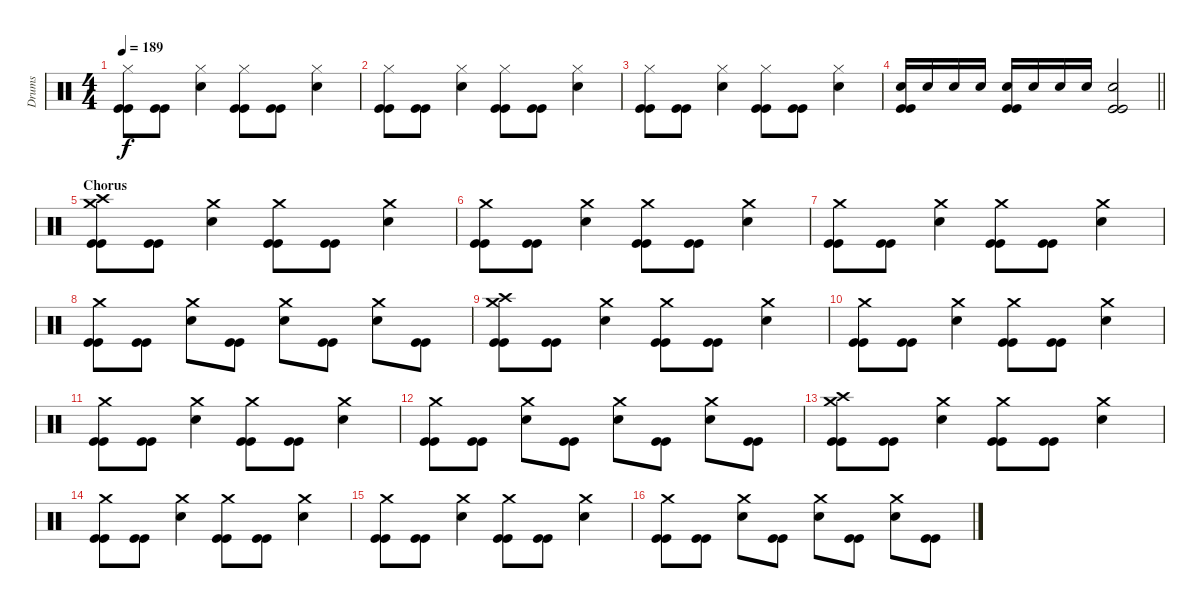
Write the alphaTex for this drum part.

\track ("Drums" "Drums") {instrument percussion}
\staff {score}
\articulation defaults
\ts (4 4)
\tempo 189
\clef neutral
\ks c
("Hi-Hat (closed)" "Kick (hit)" "Kick (hit)").8{dy f} ("Kick (hit)" "Kick (hit)").8 ("Hi-Hat (closed)" "Electric Snare (hit)").4 ("Hi-Hat (closed)" "Kick (hit)" "Kick (hit)").8 ("Kick (hit)" "Kick (hit)").8 ("Hi-Hat (closed)" "Electric Snare (hit)").4 |
("Hi-Hat (closed)" "Kick (hit)" "Kick (hit)").8 ("Kick (hit)" "Kick (hit)").8 ("Hi-Hat (closed)" "Electric Snare (hit)").4 ("Hi-Hat (closed)" "Kick (hit)" "Kick (hit)").8 ("Kick (hit)" "Kick (hit)").8 ("Hi-Hat (closed)" "Electric Snare (hit)").4 |
("Hi-Hat (closed)" "Kick (hit)" "Kick (hit)").8 ("Kick (hit)" "Kick (hit)").8 ("Hi-Hat (closed)" "Electric Snare (hit)").4 ("Hi-Hat (closed)" "Kick (hit)" "Kick (hit)").8 ("Kick (hit)" "Kick (hit)").8 ("Hi-Hat (closed)" "Electric Snare (hit)").4 |
\barLineRight lightlight
("Electric Snare (hit)" "Kick (hit)" "Kick (hit)").16 "Electric Snare (hit)".16 "Electric Snare (hit)".16 "Electric Snare (hit)".16 ("Electric Snare (hit)" "Kick (hit)" "Kick (hit)").16 "Electric Snare (hit)".16 "Electric Snare (hit)".16 "Electric Snare (hit)".16 ("Electric Snare (hit)" "Kick (hit)" "Kick (hit)").2 |
\section ("" "Chorus")
("Crash high (hit)" "Crash medium (hit)" "Kick (hit)" "Kick (hit)").8 ("Kick (hit)" "Kick (hit)").8 ("Crash medium (hit)" "Electric Snare (hit)").4 ("Crash medium (hit)" "Kick (hit)" "Kick (hit)").8 ("Kick (hit)" "Kick (hit)").8 ("Crash medium (hit)" "Electric Snare (hit)").4 |
("Crash medium (hit)" "Kick (hit)" "Kick (hit)").8 ("Kick (hit)" "Kick (hit)").8 ("Crash medium (hit)" "Electric Snare (hit)").4 ("Crash medium (hit)" "Kick (hit)" "Kick (hit)").8 ("Kick (hit)" "Kick (hit)").8 ("Crash medium (hit)" "Electric Snare (hit)").4 |
("Crash medium (hit)" "Kick (hit)" "Kick (hit)").8 ("Kick (hit)" "Kick (hit)").8 ("Crash medium (hit)" "Electric Snare (hit)").4 ("Crash medium (hit)" "Kick (hit)" "Kick (hit)").8 ("Kick (hit)" "Kick (hit)").8 ("Crash medium (hit)" "Electric Snare (hit)").4 |
("Crash medium (hit)" "Kick (hit)" "Kick (hit)").8 ("Kick (hit)" "Kick (hit)").8 ("Crash medium (hit)" "Electric Snare (hit)").8 ("Kick (hit)" "Kick (hit)").8 ("Crash medium (hit)" "Electric Snare (hit)").8 ("Kick (hit)" "Kick (hit)").8 ("Crash medium (hit)" "Electric Snare (hit)").8 ("Kick (hit)" "Kick (hit)").8 |
("Crash high (hit)" "Crash medium (hit)" "Kick (hit)" "Kick (hit)").8 ("Kick (hit)" "Kick (hit)").8 ("Crash medium (hit)" "Electric Snare (hit)").4 ("Crash medium (hit)" "Kick (hit)" "Kick (hit)").8 ("Kick (hit)" "Kick (hit)").8 ("Crash medium (hit)" "Electric Snare (hit)").4 |
("Crash medium (hit)" "Kick (hit)" "Kick (hit)").8 ("Kick (hit)" "Kick (hit)").8 ("Crash medium (hit)" "Electric Snare (hit)").4 ("Crash medium (hit)" "Kick (hit)" "Kick (hit)").8 ("Kick (hit)" "Kick (hit)").8 ("Crash medium (hit)" "Electric Snare (hit)").4 |
("Crash medium (hit)" "Kick (hit)" "Kick (hit)").8 ("Kick (hit)" "Kick (hit)").8 ("Crash medium (hit)" "Electric Snare (hit)").4 ("Crash medium (hit)" "Kick (hit)" "Kick (hit)").8 ("Kick (hit)" "Kick (hit)").8 ("Crash medium (hit)" "Electric Snare (hit)").4 |
("Crash medium (hit)" "Kick (hit)" "Kick (hit)").8 ("Kick (hit)" "Kick (hit)").8 ("Crash medium (hit)" "Electric Snare (hit)").8 ("Kick (hit)" "Kick (hit)").8 ("Crash medium (hit)" "Electric Snare (hit)").8 ("Kick (hit)" "Kick (hit)").8 ("Crash medium (hit)" "Electric Snare (hit)").8 ("Kick (hit)" "Kick (hit)").8 |
("Crash high (hit)" "Crash medium (hit)" "Kick (hit)" "Kick (hit)").8 ("Kick (hit)" "Kick (hit)").8 ("Crash medium (hit)" "Electric Snare (hit)").4 ("Crash medium (hit)" "Kick (hit)" "Kick (hit)").8 ("Kick (hit)" "Kick (hit)").8 ("Crash medium (hit)" "Electric Snare (hit)").4 |
("Crash medium (hit)" "Kick (hit)" "Kick (hit)").8 ("Kick (hit)" "Kick (hit)").8 ("Crash medium (hit)" "Electric Snare (hit)").4 ("Crash medium (hit)" "Kick (hit)" "Kick (hit)").8 ("Kick (hit)" "Kick (hit)").8 ("Crash medium (hit)" "Electric Snare (hit)").4 |
("Crash medium (hit)" "Kick (hit)" "Kick (hit)").8 ("Kick (hit)" "Kick (hit)").8 ("Crash medium (hit)" "Electric Snare (hit)").4 ("Crash medium (hit)" "Kick (hit)" "Kick (hit)").8 ("Kick (hit)" "Kick (hit)").8 ("Crash medium (hit)" "Electric Snare (hit)").4 |
("Crash medium (hit)" "Kick (hit)" "Kick (hit)").8 ("Kick (hit)" "Kick (hit)").8 ("Crash medium (hit)" "Electric Snare (hit)").8 ("Kick (hit)" "Kick (hit)").8 ("Crash medium (hit)" "Electric Snare (hit)").8 ("Kick (hit)" "Kick (hit)").8 ("Crash medium (hit)" "Electric Snare (hit)").8 ("Kick (hit)" "Kick (hit)").8
